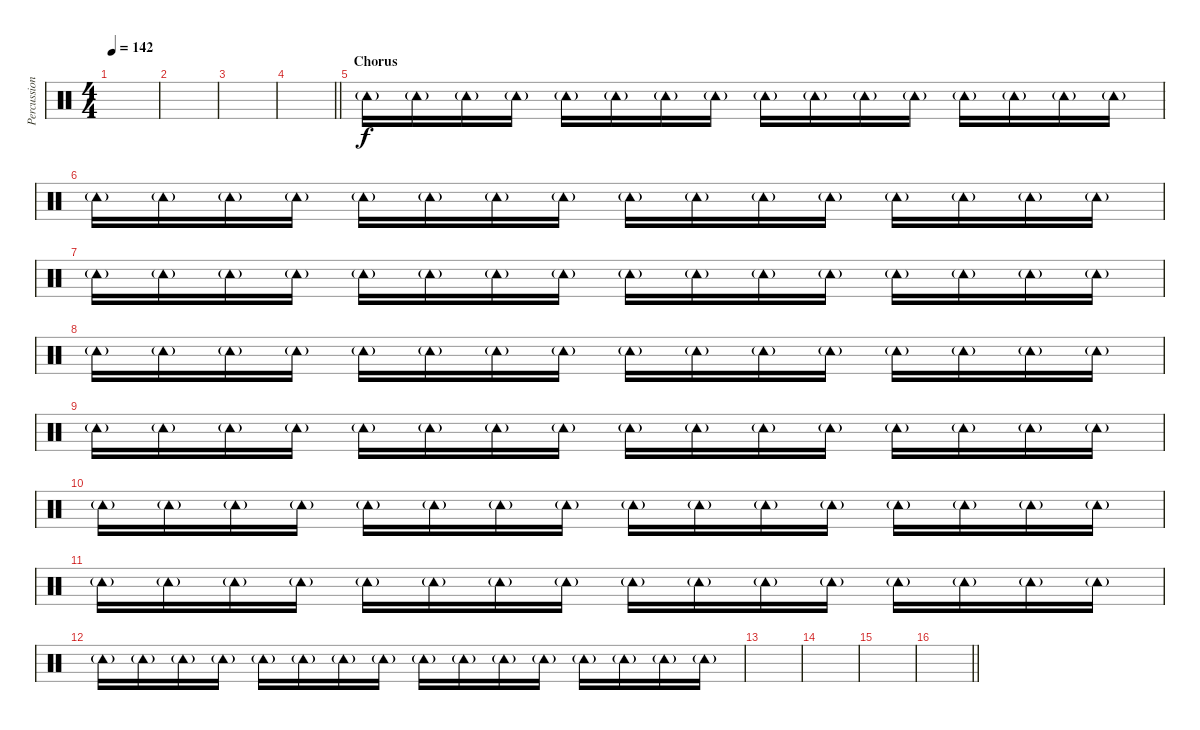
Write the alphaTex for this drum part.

\track ("Percussion" "Percussion") {instrument percussion}
\staff {score}
\articulation defaults
\ts (4 4)
\tempo 142
\clef neutral
\ks c
|
|
|
\barLineRight lightlight
|
\section ("" "Chorus")
"Tambourine (hit)"{g}.16 "Tambourine (hit)"{g}.16 "Tambourine (hit)"{g}.16 "Tambourine (hit)"{g}.16 "Tambourine (hit)"{g}.16 "Tambourine (hit)"{g}.16 "Tambourine (hit)"{g}.16 "Tambourine (hit)"{g}.16 "Tambourine (hit)"{g}.16 "Tambourine (hit)"{g}.16 "Tambourine (hit)"{g}.16 "Tambourine (hit)"{g}.16 "Tambourine (hit)"{g}.16 "Tambourine (hit)"{g}.16 "Tambourine (hit)"{g}.16 "Tambourine (hit)"{g}.16 |
"Tambourine (hit)"{g}.16 "Tambourine (hit)"{g}.16 "Tambourine (hit)"{g}.16 "Tambourine (hit)"{g}.16 "Tambourine (hit)"{g}.16 "Tambourine (hit)"{g}.16 "Tambourine (hit)"{g}.16 "Tambourine (hit)"{g}.16 "Tambourine (hit)"{g}.16 "Tambourine (hit)"{g}.16 "Tambourine (hit)"{g}.16 "Tambourine (hit)"{g}.16 "Tambourine (hit)"{g}.16 "Tambourine (hit)"{g}.16 "Tambourine (hit)"{g}.16 "Tambourine (hit)"{g}.16 |
"Tambourine (hit)"{g}.16 "Tambourine (hit)"{g}.16 "Tambourine (hit)"{g}.16 "Tambourine (hit)"{g}.16 "Tambourine (hit)"{g}.16 "Tambourine (hit)"{g}.16 "Tambourine (hit)"{g}.16 "Tambourine (hit)"{g}.16 "Tambourine (hit)"{g}.16 "Tambourine (hit)"{g}.16 "Tambourine (hit)"{g}.16 "Tambourine (hit)"{g}.16 "Tambourine (hit)"{g}.16 "Tambourine (hit)"{g}.16 "Tambourine (hit)"{g}.16 "Tambourine (hit)"{g}.16 |
"Tambourine (hit)"{g}.16 "Tambourine (hit)"{g}.16 "Tambourine (hit)"{g}.16 "Tambourine (hit)"{g}.16 "Tambourine (hit)"{g}.16 "Tambourine (hit)"{g}.16 "Tambourine (hit)"{g}.16 "Tambourine (hit)"{g}.16 "Tambourine (hit)"{g}.16 "Tambourine (hit)"{g}.16 "Tambourine (hit)"{g}.16 "Tambourine (hit)"{g}.16 "Tambourine (hit)"{g}.16 "Tambourine (hit)"{g}.16 "Tambourine (hit)"{g}.16 "Tambourine (hit)"{g}.16 |
"Tambourine (hit)"{g}.16 "Tambourine (hit)"{g}.16 "Tambourine (hit)"{g}.16 "Tambourine (hit)"{g}.16 "Tambourine (hit)"{g}.16 "Tambourine (hit)"{g}.16 "Tambourine (hit)"{g}.16 "Tambourine (hit)"{g}.16 "Tambourine (hit)"{g}.16 "Tambourine (hit)"{g}.16 "Tambourine (hit)"{g}.16 "Tambourine (hit)"{g}.16 "Tambourine (hit)"{g}.16 "Tambourine (hit)"{g}.16 "Tambourine (hit)"{g}.16 "Tambourine (hit)"{g}.16 |
"Tambourine (hit)"{g}.16 "Tambourine (hit)"{g}.16 "Tambourine (hit)"{g}.16 "Tambourine (hit)"{g}.16 "Tambourine (hit)"{g}.16 "Tambourine (hit)"{g}.16 "Tambourine (hit)"{g}.16 "Tambourine (hit)"{g}.16 "Tambourine (hit)"{g}.16 "Tambourine (hit)"{g}.16 "Tambourine (hit)"{g}.16 "Tambourine (hit)"{g}.16 "Tambourine (hit)"{g}.16 "Tambourine (hit)"{g}.16 "Tambourine (hit)"{g}.16 "Tambourine (hit)"{g}.16 |
"Tambourine (hit)"{g}.16 "Tambourine (hit)"{g}.16 "Tambourine (hit)"{g}.16 "Tambourine (hit)"{g}.16 "Tambourine (hit)"{g}.16 "Tambourine (hit)"{g}.16 "Tambourine (hit)"{g}.16 "Tambourine (hit)"{g}.16 "Tambourine (hit)"{g}.16 "Tambourine (hit)"{g}.16 "Tambourine (hit)"{g}.16 "Tambourine (hit)"{g}.16 "Tambourine (hit)"{g}.16 "Tambourine (hit)"{g}.16 "Tambourine (hit)"{g}.16 "Tambourine (hit)"{g}.16 |
"Tambourine (hit)"{g}.16 "Tambourine (hit)"{g}.16 "Tambourine (hit)"{g}.16 "Tambourine (hit)"{g}.16 "Tambourine (hit)"{g}.16 "Tambourine (hit)"{g}.16 "Tambourine (hit)"{g}.16 "Tambourine (hit)"{g}.16 "Tambourine (hit)"{g}.16 "Tambourine (hit)"{g}.16 "Tambourine (hit)"{g}.16 "Tambourine (hit)"{g}.16 "Tambourine (hit)"{g}.16 "Tambourine (hit)"{g}.16 "Tambourine (hit)"{g}.16 "Tambourine (hit)"{g}.16 |
|
|
|
\barLineRight lightlight
